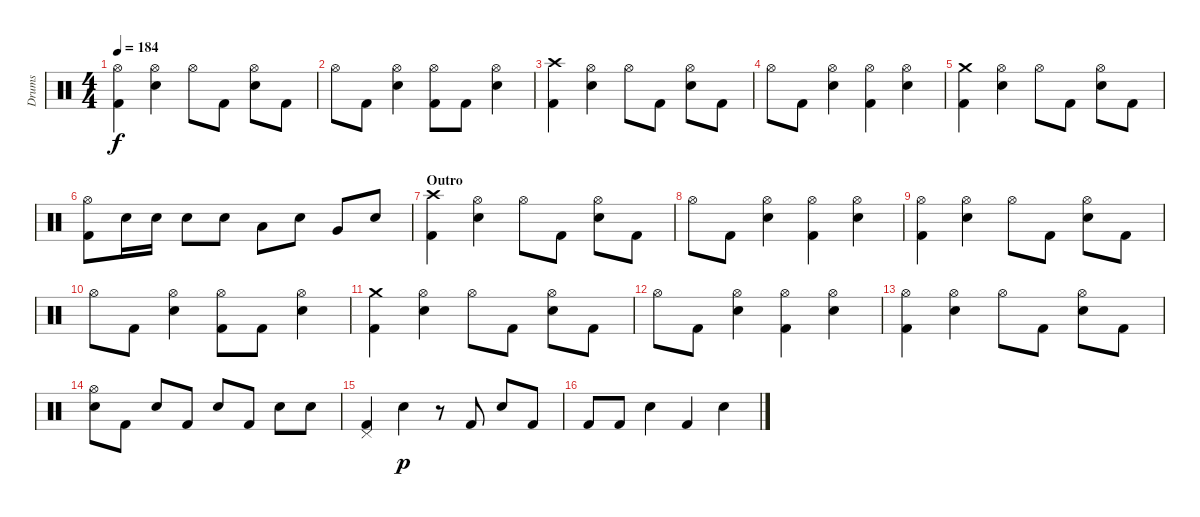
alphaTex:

\track ("Drums" "Drums") {instrument percussion}
\staff {score}
\articulation defaults
\ts (4 4)
\tempo 184
\clef neutral
\ks c
("Hi-Hat (open)" "Kick (hit) 2").4{dy f} ("Hi-Hat (open)" "Snare (hit) 2").4 "Hi-Hat (open)".8 "Kick (hit) 2".8 ("Hi-Hat (open)" "Snare (hit) 2").8 "Kick (hit) 2".8 |
"Hi-Hat (open)".8 "Kick (hit) 2".8 ("Hi-Hat (open)" "Snare (hit) 2").4 ("Hi-Hat (open)" "Kick (hit) 2").8 "Kick (hit) 2".8 ("Hi-Hat (open)" "Snare (hit) 2").4 |
("Crash high (hit)" "Kick (hit) 2").4 ("Hi-Hat (open)" "Snare (hit) 2").4 "Hi-Hat (open)".8 "Kick (hit) 2".8 ("Hi-Hat (open)" "Snare (hit) 2").8 "Kick (hit) 2".8 |
"Hi-Hat (open)".8 "Kick (hit) 2".8 ("Hi-Hat (open)" "Snare (hit) 2").4 ("Hi-Hat (open)" "Kick (hit) 2").4 ("Hi-Hat (open)" "Snare (hit) 2").4 |
("Crash medium (hit)" "Kick (hit) 2").4 ("Hi-Hat (open)" "Snare (hit) 2").4 "Hi-Hat (open)".8 "Kick (hit) 2".8 ("Hi-Hat (open)" "Snare (hit) 2").8 "Kick (hit) 2".8 |
("Hi-Hat (open)" "Kick (hit) 2").8 "Snare (hit) 2".16 "Snare (hit) 2".16 "Snare (hit) 2".8 "Snare (hit) 2".8 "Low Tom (hit)".8 "Snare (hit) 2".8 "Very Low Tom (hit)".8 "Snare (hit) 2".8 |
\section ("" "Outro")
("Crash high (hit)" "Kick (hit) 2").4 ("Hi-Hat (open)" "Snare (hit) 2").4 "Hi-Hat (open)".8 "Kick (hit) 2".8 ("Hi-Hat (open)" "Snare (hit) 2").8 "Kick (hit) 2".8 |
"Hi-Hat (open)".8 "Kick (hit) 2".8 ("Hi-Hat (open)" "Snare (hit) 2").4 ("Hi-Hat (open)" "Kick (hit) 2").4 ("Hi-Hat (open)" "Snare (hit) 2").4 |
("Hi-Hat (open)" "Kick (hit) 2").4 ("Hi-Hat (open)" "Snare (hit) 2").4 "Hi-Hat (open)".8 "Kick (hit) 2".8 ("Hi-Hat (open)" "Snare (hit) 2").8 "Kick (hit) 2".8 |
"Hi-Hat (open)".8 "Kick (hit) 2".8 ("Hi-Hat (open)" "Snare (hit) 2").4 ("Hi-Hat (open)" "Kick (hit) 2").8 "Kick (hit) 2".8 ("Hi-Hat (open)" "Snare (hit) 2").4 |
("Crash medium (hit)" "Kick (hit) 2").4 ("Hi-Hat (open)" "Snare (hit) 2").4 "Hi-Hat (open)".8 "Kick (hit) 2".8 ("Hi-Hat (open)" "Snare (hit) 2").8 "Kick (hit) 2".8 |
"Hi-Hat (open)".8 "Kick (hit) 2".8 ("Hi-Hat (open)" "Snare (hit) 2").4 ("Hi-Hat (open)" "Kick (hit) 2").4 ("Hi-Hat (open)" "Snare (hit) 2").4 |
("Hi-Hat (open)" "Kick (hit) 2").4 ("Hi-Hat (open)" "Snare (hit) 2").4 "Hi-Hat (open)".8 "Kick (hit) 2".8 ("Hi-Hat (open)" "Snare (hit) 2").8 "Kick (hit) 2".8 |
("Hi-Hat (open)" "Snare (hit) 2").8 "Kick (hit) 2".8 "Snare (hit) 2".8 "Kick (hit) 2".8 "Snare (hit) 2".8 "Kick (hit) 2".8 "Snare (hit) 2".8 "Snare (hit) 2".8 |
("Pedal Hi-Hat (hit)" "Kick (hit) 2").4 "Snare (hit) 2".4{dy p} r.8 "Kick (hit) 2".8 "Snare (hit) 2".8 "Kick (hit) 2".8 |
"Kick (hit) 2".8 "Kick (hit) 2".8 "Snare (hit) 2".4 "Kick (hit) 2".4 "Snare (hit) 2".4
